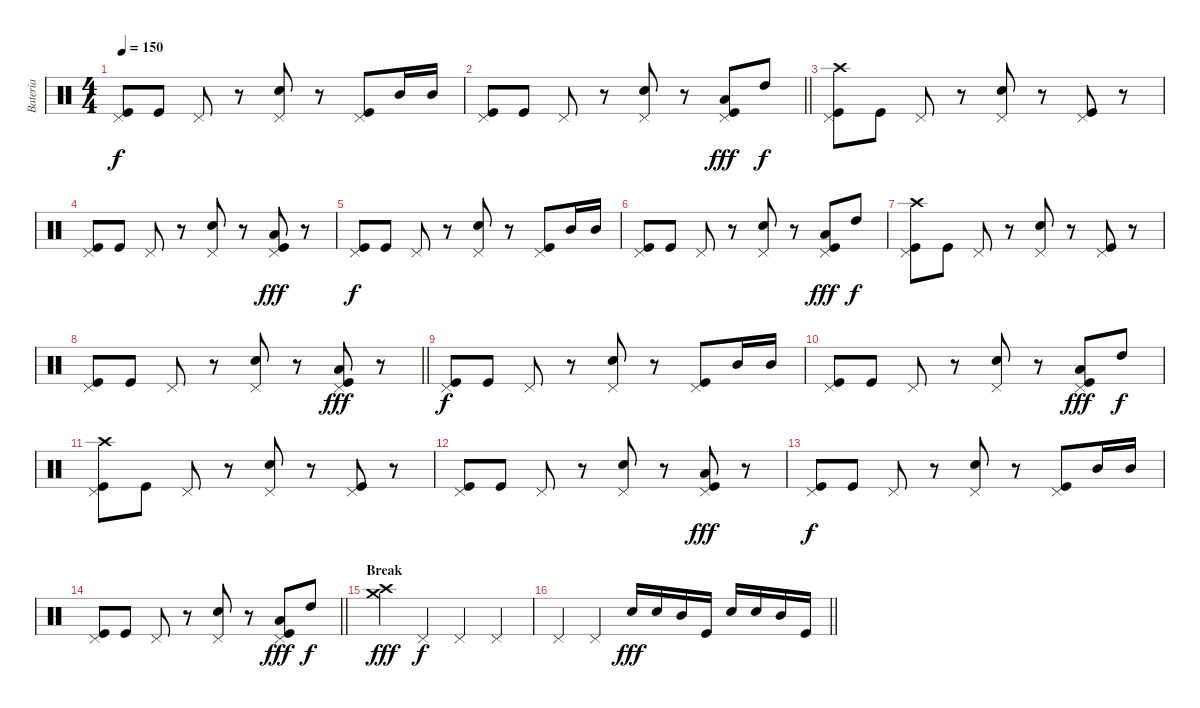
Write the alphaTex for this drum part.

\track ("Bateria" "Bateria") {instrument percussion}
\staff {score}
\articulation defaults
\ts (4 4)
\tempo 150
\clef neutral
\ks c
("Pedal Hi-Hat (hit)" "Kick (hit)").8{dy f} "Kick (hit)".8 "Pedal Hi-Hat (hit)".8 r.8 ("Pedal Hi-Hat (hit)" "Electric Snare (hit)").8 r.8 ("Pedal Hi-Hat (hit)" "Kick (hit)").8 "Mid Tom (hit)".16 "Mid Tom (hit)".16 |
\barLineRight lightlight
("Pedal Hi-Hat (hit)" "Kick (hit)").8 "Kick (hit)".8 "Pedal Hi-Hat (hit)".8 r.8 ("Pedal Hi-Hat (hit)" "Electric Snare (hit)").8 r.8 ("Pedal Hi-Hat (hit)" "Low Tom (hit)" "Kick (hit)").8{dy fff} "High Tom (hit)".8{dy f} |
("Pedal Hi-Hat (hit)" "Kick (hit)" "Crash high (hit)").8 "Kick (hit)".8 "Pedal Hi-Hat (hit)".8 r.8 ("Pedal Hi-Hat (hit)" "Electric Snare (hit)").8 r.8 ("Pedal Hi-Hat (hit)" "Kick (hit)").8 r.8 |
("Pedal Hi-Hat (hit)" "Kick (hit)").8 "Kick (hit)".8 "Pedal Hi-Hat (hit)".8 r.8 ("Pedal Hi-Hat (hit)" "Electric Snare (hit)").8 r.8 ("Pedal Hi-Hat (hit)" "Low Tom (hit)" "Kick (hit)").8{dy fff} r.8 |
("Pedal Hi-Hat (hit)" "Kick (hit)").8{dy f} "Kick (hit)".8 "Pedal Hi-Hat (hit)".8 r.8 ("Pedal Hi-Hat (hit)" "Electric Snare (hit)").8 r.8 ("Pedal Hi-Hat (hit)" "Kick (hit)").8 "Mid Tom (hit)".16 "Mid Tom (hit)".16 |
("Pedal Hi-Hat (hit)" "Kick (hit)").8 "Kick (hit)".8 "Pedal Hi-Hat (hit)".8 r.8 ("Pedal Hi-Hat (hit)" "Electric Snare (hit)").8 r.8 ("Pedal Hi-Hat (hit)" "Low Tom (hit)" "Kick (hit)").8{dy fff} "High Tom (hit)".8{dy f} |
("Pedal Hi-Hat (hit)" "Kick (hit)" "Crash high (hit)").8 "Kick (hit)".8 "Pedal Hi-Hat (hit)".8 r.8 ("Pedal Hi-Hat (hit)" "Electric Snare (hit)").8 r.8 ("Pedal Hi-Hat (hit)" "Kick (hit)").8 r.8 |
\barLineRight lightlight
("Pedal Hi-Hat (hit)" "Kick (hit)").8 "Kick (hit)".8 "Pedal Hi-Hat (hit)".8 r.8 ("Pedal Hi-Hat (hit)" "Electric Snare (hit)").8 r.8 ("Pedal Hi-Hat (hit)" "Low Tom (hit)" "Kick (hit)").8{dy fff} r.8 |
("Pedal Hi-Hat (hit)" "Kick (hit)").8{dy f} "Kick (hit)".8 "Pedal Hi-Hat (hit)".8 r.8 ("Pedal Hi-Hat (hit)" "Electric Snare (hit)").8 r.8 ("Pedal Hi-Hat (hit)" "Kick (hit)").8 "Mid Tom (hit)".16 "Mid Tom (hit)".16 |
("Pedal Hi-Hat (hit)" "Kick (hit)").8 "Kick (hit)".8 "Pedal Hi-Hat (hit)".8 r.8 ("Pedal Hi-Hat (hit)" "Electric Snare (hit)").8 r.8 ("Pedal Hi-Hat (hit)" "Low Tom (hit)" "Kick (hit)").8{dy fff} "High Tom (hit)".8{dy f} |
("Pedal Hi-Hat (hit)" "Kick (hit)" "Crash high (hit)").8 "Kick (hit)".8 "Pedal Hi-Hat (hit)".8 r.8 ("Pedal Hi-Hat (hit)" "Electric Snare (hit)").8 r.8 ("Pedal Hi-Hat (hit)" "Kick (hit)").8 r.8 |
("Pedal Hi-Hat (hit)" "Kick (hit)").8 "Kick (hit)".8 "Pedal Hi-Hat (hit)".8 r.8 ("Pedal Hi-Hat (hit)" "Electric Snare (hit)").8 r.8 ("Pedal Hi-Hat (hit)" "Low Tom (hit)" "Kick (hit)").8{dy fff} r.8 |
("Pedal Hi-Hat (hit)" "Kick (hit)").8{dy f} "Kick (hit)".8 "Pedal Hi-Hat (hit)".8 r.8 ("Pedal Hi-Hat (hit)" "Electric Snare (hit)").8 r.8 ("Pedal Hi-Hat (hit)" "Kick (hit)").8 "Mid Tom (hit)".16 "Mid Tom (hit)".16 |
\barLineRight lightlight
("Pedal Hi-Hat (hit)" "Kick (hit)").8 "Kick (hit)".8 "Pedal Hi-Hat (hit)".8 r.8 ("Pedal Hi-Hat (hit)" "Electric Snare (hit)").8 r.8 ("Pedal Hi-Hat (hit)" "Low Tom (hit)" "Kick (hit)").8{dy fff} "High Tom (hit)".8{dy f} |
\section ("" "Break")
("Crash high (hit)" "Crash medium (hit)").4{dy fff} "Pedal Hi-Hat (hit)".4{dy f} "Pedal Hi-Hat (hit)".4 "Pedal Hi-Hat (hit)".4 |
\barLineRight lightlight "Pedal Hi-Hat (hit)".4 "Pedal Hi-Hat (hit)".4 "Electric Snare (hit)".16{dy fff} "Electric Snare (hit)".16 "Mid Tom (hit)".16 "Kick (hit)".16 "Electric Snare (hit)".16 "Electric Snare (hit)".16 "Mid Tom (hit)".16 "Kick (hit)".16
